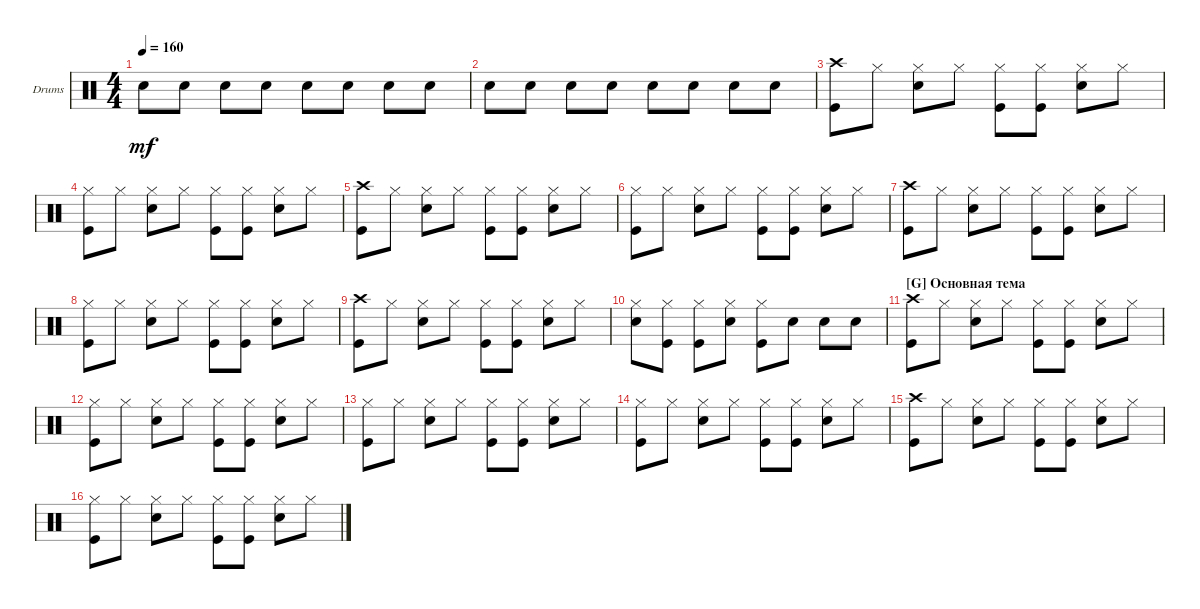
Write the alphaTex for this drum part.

\bracketExtendMode groupsimilarinstruments
\firstSystemTrackNameOrientation horizontal
\otherSystemsTrackNameOrientation horizontal
\track ("Drumkit" "Drums") {instrument percussion}
\staff {score}
\articulation defaults
\ts (4 4)
\tempo 160
\clef neutral
\ks c "Snare (hit) 2".8{dy mf} "Snare (hit) 2".8 "Snare (hit) 2".8 "Snare (hit) 2".8 "Snare (hit) 2".8 "Snare (hit) 2".8 "Snare (hit) 2".8 "Snare (hit) 2".8
|
"Snare (hit) 2".8 "Snare (hit) 2".8 "Snare (hit) 2".8 "Snare (hit) 2".8 "Snare (hit) 2".8 "Snare (hit) 2".8 "Snare (hit) 2".8 "Snare (hit) 2".8 |
("Kick (hit)" "Crash high (hit)").8 "Hi-Hat (closed)".8 ("Hi-Hat (closed)" "Snare (hit) 2").8 "Hi-Hat (closed)".8 ("Kick (hit)" "Hi-Hat (closed)").8 ("Hi-Hat (closed)" "Kick (hit)").8 ("Hi-Hat (closed)" "Snare (hit) 2").8 "Hi-Hat (closed)".8 |
("Kick (hit)" "Hi-Hat (closed)").8 "Hi-Hat (closed)".8 ("Hi-Hat (closed)" "Snare (hit) 2").8 "Hi-Hat (closed)".8 ("Kick (hit)" "Hi-Hat (closed)").8 ("Hi-Hat (closed)" "Kick (hit)").8 ("Hi-Hat (closed)" "Snare (hit) 2").8 "Hi-Hat (closed)".8 |
("Kick (hit)" "Crash high (hit)").8 "Hi-Hat (closed)".8 ("Hi-Hat (closed)" "Snare (hit) 2").8 "Hi-Hat (closed)".8 ("Kick (hit)" "Hi-Hat (closed)").8 ("Hi-Hat (closed)" "Kick (hit)").8 ("Hi-Hat (closed)" "Snare (hit) 2").8 "Hi-Hat (closed)".8 |
("Kick (hit)" "Hi-Hat (closed)").8 "Hi-Hat (closed)".8 ("Hi-Hat (closed)" "Snare (hit) 2").8 "Hi-Hat (closed)".8 ("Kick (hit)" "Hi-Hat (closed)").8 ("Hi-Hat (closed)" "Kick (hit)").8 ("Hi-Hat (closed)" "Snare (hit) 2").8 "Hi-Hat (closed)".8 |
("Kick (hit)" "Crash high (hit)").8 "Hi-Hat (closed)".8 ("Hi-Hat (closed)" "Snare (hit) 2").8 "Hi-Hat (closed)".8 ("Kick (hit)" "Hi-Hat (closed)").8 ("Hi-Hat (closed)" "Kick (hit)").8 ("Hi-Hat (closed)" "Snare (hit) 2").8 "Hi-Hat (closed)".8 |
("Kick (hit)" "Hi-Hat (closed)").8 "Hi-Hat (closed)".8 ("Hi-Hat (closed)" "Snare (hit) 2").8 "Hi-Hat (closed)".8 ("Kick (hit)" "Hi-Hat (closed)").8 ("Hi-Hat (closed)" "Kick (hit)").8 ("Hi-Hat (closed)" "Snare (hit) 2").8 "Hi-Hat (closed)".8 |
("Kick (hit)" "Crash high (hit)").8 "Hi-Hat (closed)".8 ("Hi-Hat (closed)" "Snare (hit) 2").8 "Hi-Hat (closed)".8 ("Kick (hit)" "Hi-Hat (closed)").8 ("Hi-Hat (closed)" "Kick (hit)").8 ("Hi-Hat (closed)" "Snare (hit) 2").8 "Hi-Hat (closed)".8 |
("Hi-Hat (closed)" "Snare (hit) 2").8 ("Hi-Hat (closed)" "Kick (hit)").8 ("Hi-Hat (closed)" "Kick (hit)").8 ("Hi-Hat (closed)" "Snare (hit) 2").8 ("Kick (hit)" "Hi-Hat (closed)").8 "Snare (hit) 2".8 "Snare (hit) 2".8 "Snare (hit) 2".8 |
\section ("G" "Основная тема")
("Kick (hit)" "Crash high (hit)").8 "Hi-Hat (closed)".8 ("Hi-Hat (closed)" "Snare (hit) 2").8 "Hi-Hat (closed)".8 ("Kick (hit)" "Hi-Hat (closed)").8 ("Hi-Hat (closed)" "Kick (hit)").8 ("Hi-Hat (closed)" "Snare (hit) 2").8 "Hi-Hat (closed)".8 |
("Kick (hit)" "Hi-Hat (closed)").8 "Hi-Hat (closed)".8 ("Hi-Hat (closed)" "Snare (hit) 2").8 "Hi-Hat (closed)".8 ("Kick (hit)" "Hi-Hat (closed)").8 ("Hi-Hat (closed)" "Kick (hit)").8 ("Hi-Hat (closed)" "Snare (hit) 2").8 "Hi-Hat (closed)".8 |
("Kick (hit)" "Hi-Hat (closed)").8 "Hi-Hat (closed)".8 ("Hi-Hat (closed)" "Snare (hit) 2").8 "Hi-Hat (closed)".8 ("Kick (hit)" "Hi-Hat (closed)").8 ("Hi-Hat (closed)" "Kick (hit)").8 ("Hi-Hat (closed)" "Snare (hit) 2").8 "Hi-Hat (closed)".8 |
("Kick (hit)" "Hi-Hat (closed)").8 "Hi-Hat (closed)".8 ("Hi-Hat (closed)" "Snare (hit) 2").8 "Hi-Hat (closed)".8 ("Kick (hit)" "Hi-Hat (closed)").8 ("Hi-Hat (closed)" "Kick (hit)").8 ("Hi-Hat (closed)" "Snare (hit) 2").8 "Hi-Hat (closed)".8 |
("Kick (hit)" "Crash high (hit)").8 "Hi-Hat (closed)".8 ("Hi-Hat (closed)" "Snare (hit) 2").8 "Hi-Hat (closed)".8 ("Kick (hit)" "Hi-Hat (closed)").8 ("Hi-Hat (closed)" "Kick (hit)").8 ("Hi-Hat (closed)" "Snare (hit) 2").8 "Hi-Hat (closed)".8 |
("Kick (hit)" "Hi-Hat (closed)").8 "Hi-Hat (closed)".8 ("Hi-Hat (closed)" "Snare (hit) 2").8 "Hi-Hat (closed)".8 ("Kick (hit)" "Hi-Hat (closed)").8 ("Hi-Hat (closed)" "Kick (hit)").8 ("Hi-Hat (closed)" "Snare (hit) 2").8 "Hi-Hat (closed)".8
